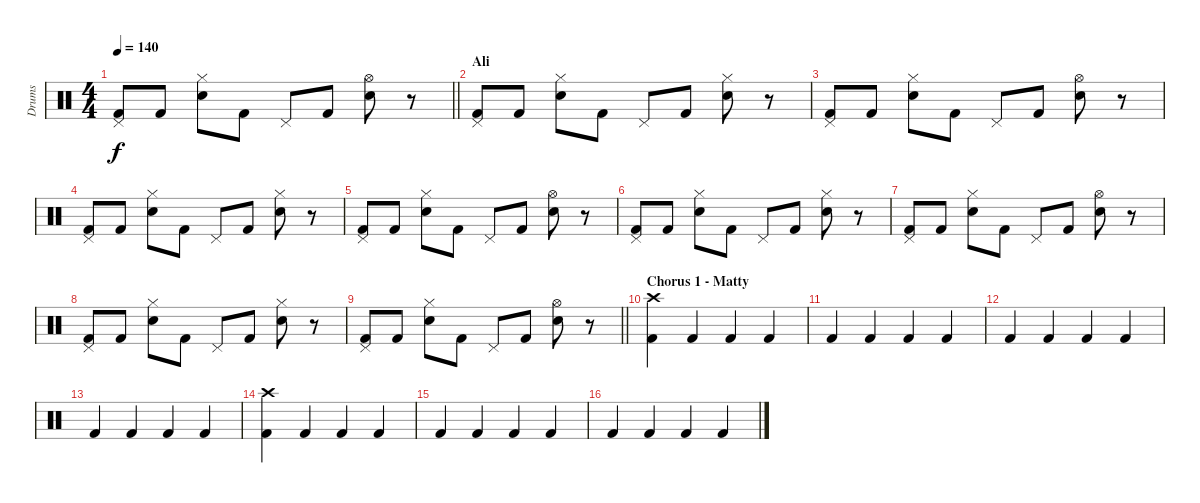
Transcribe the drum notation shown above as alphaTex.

\track ("Drums" "Drums") {instrument percussion bank 127}
\staff {score}
\articulation defaults
\ts (4 4)
\tempo 140
\clef neutral
\barLineRight lightlight
\ks c
("Pedal Hi-Hat (hit)" "Kick (hit) 2").8{dy f} "Kick (hit) 2".8 ("Hi-Hat (closed)" "Electric Snare (hit)").8 "Kick (hit) 2".8 "Pedal Hi-Hat (hit)".8 "Kick (hit) 2".8 ("Hi-Hat (open)" "Electric Snare (hit)").8 r.8 |
\section ("" "Ali")
("Pedal Hi-Hat (hit)" "Kick (hit) 2").8 "Kick (hit) 2".8 ("Hi-Hat (closed)" "Electric Snare (hit)").8 "Kick (hit) 2".8 "Pedal Hi-Hat (hit)".8 "Kick (hit) 2".8 ("Hi-Hat (closed)" "Electric Snare (hit)").8 r.8 |
("Pedal Hi-Hat (hit)" "Kick (hit) 2").8 "Kick (hit) 2".8 ("Hi-Hat (closed)" "Electric Snare (hit)").8 "Kick (hit) 2".8 "Pedal Hi-Hat (hit)".8 "Kick (hit) 2".8 ("Hi-Hat (open)" "Electric Snare (hit)").8 r.8 |
("Pedal Hi-Hat (hit)" "Kick (hit) 2").8 "Kick (hit) 2".8 ("Hi-Hat (closed)" "Electric Snare (hit)").8 "Kick (hit) 2".8 "Pedal Hi-Hat (hit)".8 "Kick (hit) 2".8 ("Hi-Hat (closed)" "Electric Snare (hit)").8 r.8 |
("Pedal Hi-Hat (hit)" "Kick (hit) 2").8 "Kick (hit) 2".8 ("Hi-Hat (closed)" "Electric Snare (hit)").8 "Kick (hit) 2".8 "Pedal Hi-Hat (hit)".8 "Kick (hit) 2".8 ("Hi-Hat (open)" "Electric Snare (hit)").8 r.8 |
("Pedal Hi-Hat (hit)" "Kick (hit) 2").8 "Kick (hit) 2".8 ("Hi-Hat (closed)" "Electric Snare (hit)").8 "Kick (hit) 2".8 "Pedal Hi-Hat (hit)".8 "Kick (hit) 2".8 ("Hi-Hat (closed)" "Electric Snare (hit)").8 r.8 |
("Pedal Hi-Hat (hit)" "Kick (hit) 2").8 "Kick (hit) 2".8 ("Hi-Hat (closed)" "Electric Snare (hit)").8 "Kick (hit) 2".8 "Pedal Hi-Hat (hit)".8 "Kick (hit) 2".8 ("Hi-Hat (open)" "Electric Snare (hit)").8 r.8 |
("Pedal Hi-Hat (hit)" "Kick (hit) 2").8 "Kick (hit) 2".8 ("Hi-Hat (closed)" "Electric Snare (hit)").8 "Kick (hit) 2".8 "Pedal Hi-Hat (hit)".8 "Kick (hit) 2".8 ("Hi-Hat (closed)" "Electric Snare (hit)").8 r.8 |
\barLineRight lightlight
("Pedal Hi-Hat (hit)" "Kick (hit) 2").8 "Kick (hit) 2".8 ("Hi-Hat (closed)" "Electric Snare (hit)").8 "Kick (hit) 2".8 "Pedal Hi-Hat (hit)".8 "Kick (hit) 2".8 ("Hi-Hat (open)" "Electric Snare (hit)").8 r.8 |
\section ("" "Chorus 1 - Matty")
("Crash high (hit)" "Kick (hit) 2").4 "Kick (hit) 2".4 "Kick (hit) 2".4 "Kick (hit) 2".4 |
"Kick (hit) 2".4 "Kick (hit) 2".4 "Kick (hit) 2".4 "Kick (hit) 2".4 |
"Kick (hit) 2".4 "Kick (hit) 2".4 "Kick (hit) 2".4 "Kick (hit) 2".4 |
"Kick (hit) 2".4 "Kick (hit) 2".4 "Kick (hit) 2".4 "Kick (hit) 2".4 |
("Crash high (hit)" "Kick (hit) 2").4 "Kick (hit) 2".4 "Kick (hit) 2".4 "Kick (hit) 2".4 |
"Kick (hit) 2".4 "Kick (hit) 2".4 "Kick (hit) 2".4 "Kick (hit) 2".4 |
"Kick (hit) 2".4 "Kick (hit) 2".4 "Kick (hit) 2".4 "Kick (hit) 2".4
